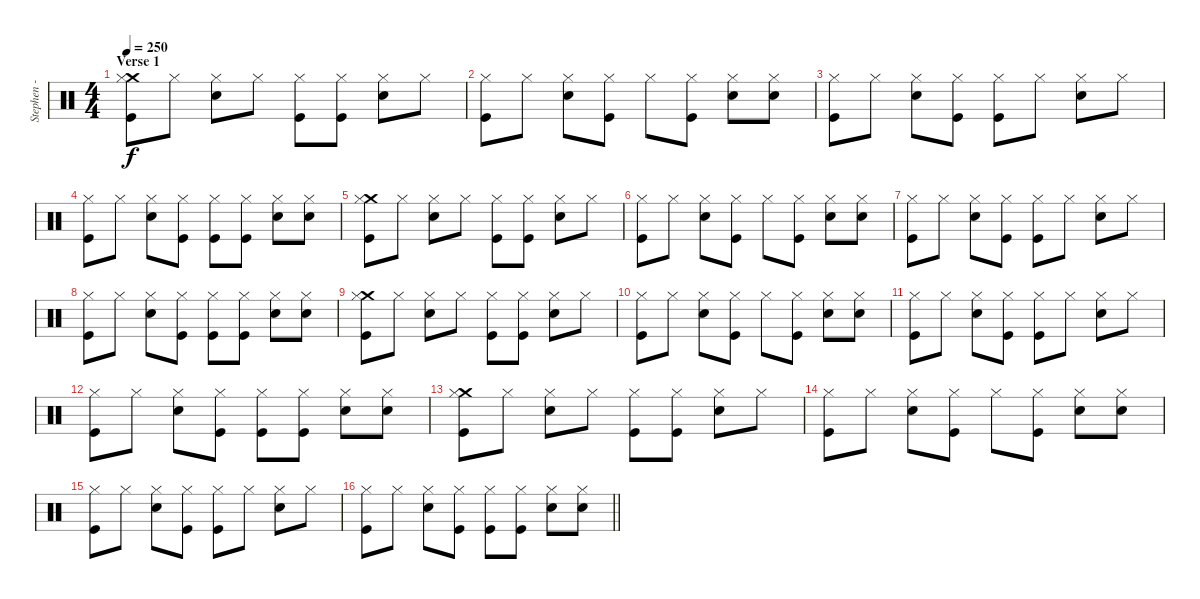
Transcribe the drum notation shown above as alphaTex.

\track ("Stephen - Drums" "Stephen - ") {instrument percussion}
\staff {score}
\articulation defaults
\ts (4 4)
\section ("" "Verse 1")
\tempo 250
\clef neutral
\ks c
("Crash medium (hit)" "Hi-Hat (closed)" "Kick (hit)").8{dy f} "Hi-Hat (closed)".8 ("Hi-Hat (closed)" "Snare (hit) 2").8 "Hi-Hat (closed)".8 ("Hi-Hat (closed)" "Kick (hit)").8 ("Hi-Hat (closed)" "Kick (hit)").8 ("Hi-Hat (closed)" "Snare (hit) 2").8 "Hi-Hat (closed)".8 |
("Hi-Hat (closed)" "Kick (hit)").8 "Hi-Hat (closed)".8 ("Hi-Hat (closed)" "Snare (hit) 2").8 ("Hi-Hat (closed)" "Kick (hit)").8 "Hi-Hat (closed)".8 ("Hi-Hat (closed)" "Kick (hit)").8 ("Hi-Hat (closed)" "Snare (hit) 2").8 ("Hi-Hat (closed)" "Snare (hit) 2").8 |
("Hi-Hat (closed)" "Kick (hit)").8 "Hi-Hat (closed)".8 ("Hi-Hat (closed)" "Snare (hit) 2").8 ("Hi-Hat (closed)" "Kick (hit)").8 ("Hi-Hat (closed)" "Kick (hit)").8 "Hi-Hat (closed)".8 ("Hi-Hat (closed)" "Snare (hit) 2").8 "Hi-Hat (closed)".8 |
("Hi-Hat (closed)" "Kick (hit)").8 "Hi-Hat (closed)".8 ("Hi-Hat (closed)" "Snare (hit) 2").8 ("Hi-Hat (closed)" "Kick (hit)").8 ("Hi-Hat (closed)" "Kick (hit)").8 ("Hi-Hat (closed)" "Kick (hit)").8 ("Hi-Hat (closed)" "Snare (hit) 2").8 ("Hi-Hat (closed)" "Snare (hit) 2").8 |
("Crash medium (hit)" "Hi-Hat (closed)" "Kick (hit)").8 "Hi-Hat (closed)".8 ("Hi-Hat (closed)" "Snare (hit) 2").8 "Hi-Hat (closed)".8 ("Hi-Hat (closed)" "Kick (hit)").8 ("Hi-Hat (closed)" "Kick (hit)").8 ("Hi-Hat (closed)" "Snare (hit) 2").8 "Hi-Hat (closed)".8 |
("Hi-Hat (closed)" "Kick (hit)").8 "Hi-Hat (closed)".8 ("Hi-Hat (closed)" "Snare (hit) 2").8 ("Hi-Hat (closed)" "Kick (hit)").8 "Hi-Hat (closed)".8 ("Hi-Hat (closed)" "Kick (hit)").8 ("Hi-Hat (closed)" "Snare (hit) 2").8 ("Hi-Hat (closed)" "Snare (hit) 2").8 |
("Hi-Hat (closed)" "Kick (hit)").8 "Hi-Hat (closed)".8 ("Hi-Hat (closed)" "Snare (hit) 2").8 ("Hi-Hat (closed)" "Kick (hit)").8 ("Hi-Hat (closed)" "Kick (hit)").8 "Hi-Hat (closed)".8 ("Hi-Hat (closed)" "Snare (hit) 2").8 "Hi-Hat (closed)".8 |
("Hi-Hat (closed)" "Kick (hit)").8 "Hi-Hat (closed)".8 ("Hi-Hat (closed)" "Snare (hit) 2").8 ("Hi-Hat (closed)" "Kick (hit)").8 ("Hi-Hat (closed)" "Kick (hit)").8 ("Hi-Hat (closed)" "Kick (hit)").8 ("Hi-Hat (closed)" "Snare (hit) 2").8 ("Hi-Hat (closed)" "Snare (hit) 2").8 |
("Crash medium (hit)" "Hi-Hat (closed)" "Kick (hit)").8 "Hi-Hat (closed)".8 ("Hi-Hat (closed)" "Snare (hit) 2").8 "Hi-Hat (closed)".8 ("Hi-Hat (closed)" "Kick (hit)").8 ("Hi-Hat (closed)" "Kick (hit)").8 ("Hi-Hat (closed)" "Snare (hit) 2").8 "Hi-Hat (closed)".8 |
("Hi-Hat (closed)" "Kick (hit)").8 "Hi-Hat (closed)".8 ("Hi-Hat (closed)" "Snare (hit) 2").8 ("Hi-Hat (closed)" "Kick (hit)").8 "Hi-Hat (closed)".8 ("Hi-Hat (closed)" "Kick (hit)").8 ("Hi-Hat (closed)" "Snare (hit) 2").8 ("Hi-Hat (closed)" "Snare (hit) 2").8 |
("Hi-Hat (closed)" "Kick (hit)").8 "Hi-Hat (closed)".8 ("Hi-Hat (closed)" "Snare (hit) 2").8 ("Hi-Hat (closed)" "Kick (hit)").8 ("Hi-Hat (closed)" "Kick (hit)").8 "Hi-Hat (closed)".8 ("Hi-Hat (closed)" "Snare (hit) 2").8 "Hi-Hat (closed)".8 |
("Hi-Hat (closed)" "Kick (hit)").8 "Hi-Hat (closed)".8 ("Hi-Hat (closed)" "Snare (hit) 2").8 ("Hi-Hat (closed)" "Kick (hit)").8 ("Hi-Hat (closed)" "Kick (hit)").8 ("Hi-Hat (closed)" "Kick (hit)").8 ("Hi-Hat (closed)" "Snare (hit) 2").8 ("Hi-Hat (closed)" "Snare (hit) 2").8 |
("Crash medium (hit)" "Hi-Hat (closed)" "Kick (hit)").8 "Hi-Hat (closed)".8 ("Hi-Hat (closed)" "Snare (hit) 2").8 "Hi-Hat (closed)".8 ("Hi-Hat (closed)" "Kick (hit)").8 ("Hi-Hat (closed)" "Kick (hit)").8 ("Hi-Hat (closed)" "Snare (hit) 2").8 "Hi-Hat (closed)".8 |
("Hi-Hat (closed)" "Kick (hit)").8 "Hi-Hat (closed)".8 ("Hi-Hat (closed)" "Snare (hit) 2").8 ("Hi-Hat (closed)" "Kick (hit)").8 "Hi-Hat (closed)".8 ("Hi-Hat (closed)" "Kick (hit)").8 ("Hi-Hat (closed)" "Snare (hit) 2").8 ("Hi-Hat (closed)" "Snare (hit) 2").8 |
("Hi-Hat (closed)" "Kick (hit)").8 "Hi-Hat (closed)".8 ("Hi-Hat (closed)" "Snare (hit) 2").8 ("Hi-Hat (closed)" "Kick (hit)").8 ("Hi-Hat (closed)" "Kick (hit)").8 "Hi-Hat (closed)".8 ("Hi-Hat (closed)" "Snare (hit) 2").8 "Hi-Hat (closed)".8 |
\barLineRight lightlight
("Hi-Hat (closed)" "Kick (hit)").8 "Hi-Hat (closed)".8 ("Hi-Hat (closed)" "Snare (hit) 2").8 ("Hi-Hat (closed)" "Kick (hit)").8 ("Hi-Hat (closed)" "Kick (hit)").8 ("Hi-Hat (closed)" "Kick (hit)").8 ("Hi-Hat (closed)" "Snare (hit) 2").8 ("Hi-Hat (closed)" "Snare (hit) 2").8
